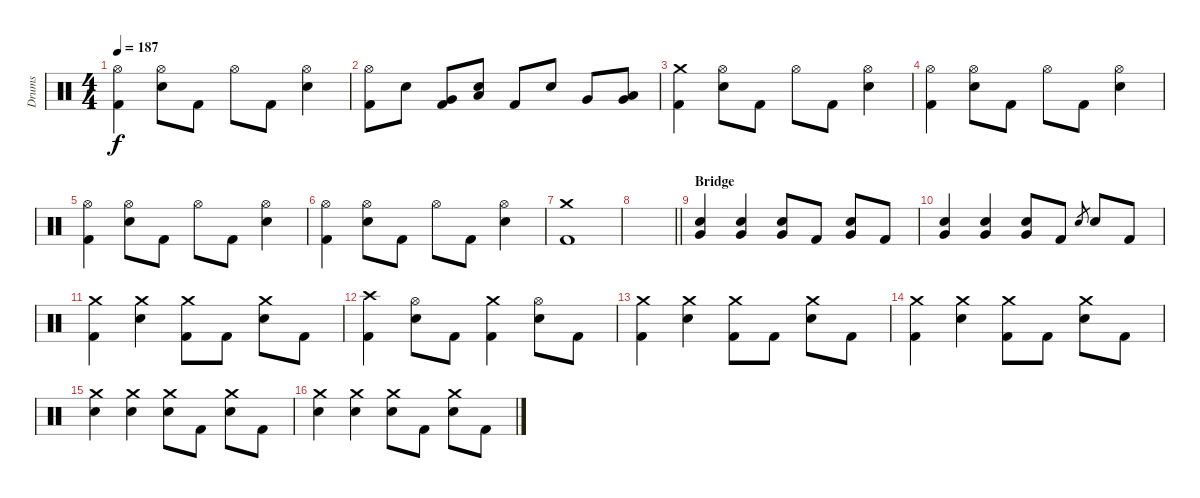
\track ("Drums" "Drums") {instrument percussion}
\staff {score}
\articulation defaults
\ts (4 4)
\tempo 187
\clef neutral
\ks c
("Hi-Hat (open)" "Kick (hit) 2").4{dy f} ("Hi-Hat (open)" "Electric Snare (hit)").8 "Kick (hit) 2".8 "Hi-Hat (open)".8 "Kick (hit) 2".8 ("Hi-Hat (open)" "Electric Snare (hit)").4 |
("Hi-Hat (open)" "Kick (hit) 2").8 "Electric Snare (hit)".8 ("Very Low Tom (hit)" "Kick (hit) 2").8 ("Low Tom (hit)" "Electric Snare (hit)").8 "Kick (hit) 2".8 "Electric Snare (hit)".8 "Very Low Tom (hit)".8 ("Very Low Tom (hit)" "Low Floor Tom (hit)").8 |
("Crash medium (hit)" "Kick (hit) 2").4 ("Hi-Hat (open)" "Electric Snare (hit)").8 "Kick (hit) 2".8 "Hi-Hat (open)".8 "Kick (hit) 2".8 ("Hi-Hat (open)" "Electric Snare (hit)").4 |
("Hi-Hat (open)" "Kick (hit) 2").4 ("Hi-Hat (open)" "Electric Snare (hit)").8 "Kick (hit) 2".8 "Hi-Hat (open)".8 "Kick (hit) 2".8 ("Hi-Hat (open)" "Electric Snare (hit)").4 |
("Hi-Hat (open)" "Kick (hit) 2").4 ("Hi-Hat (open)" "Electric Snare (hit)").8 "Kick (hit) 2".8 "Hi-Hat (open)".8 "Kick (hit) 2".8 ("Hi-Hat (open)" "Electric Snare (hit)").4 |
("Hi-Hat (open)" "Kick (hit) 2").4 ("Hi-Hat (open)" "Electric Snare (hit)").8 "Kick (hit) 2".8 "Hi-Hat (open)".8 "Kick (hit) 2".8 ("Hi-Hat (open)" "Electric Snare (hit)").4 |
("Crash medium (hit)" "Kick (hit) 2").1 |
\barLineRight lightlight
|
\section ("" "Bridge")
("Very Low Tom (hit)" "Electric Snare (hit)").4 ("Very Low Tom (hit)" "Electric Snare (hit)").4 ("Very Low Tom (hit)" "Electric Snare (hit)").8 "Kick (hit) 2".8 ("Very Low Tom (hit)" "Electric Snare (hit)").8 "Kick (hit) 2".8 |
("Very Low Tom (hit)" "Electric Snare (hit)").4 ("Very Low Tom (hit)" "Electric Snare (hit)").4 ("Very Low Tom (hit)" "Electric Snare (hit)").8 "Kick (hit) 2".8 "Electric Snare (hit)".8{gr} "Electric Snare (hit)".8 "Kick (hit) 2".8 |
("Crash medium (hit)" "Kick (hit) 2").4 ("Crash medium (hit)" "Electric Snare (hit)").4 ("Crash medium (hit)" "Kick (hit) 2").8 "Kick (hit) 2".8 ("Crash medium (hit)" "Electric Snare (hit)").8 "Kick (hit) 2".8 |
("Crash high (hit)" "Kick (hit) 2").4 ("Hi-Hat (open)" "Electric Snare (hit)").8 "Kick (hit) 2".8 ("Crash medium (hit)" "Kick (hit) 2").4 ("Hi-Hat (open)" "Electric Snare (hit)").8 "Kick (hit) 2".8 |
("Crash medium (hit)" "Kick (hit) 2").4 ("Crash medium (hit)" "Electric Snare (hit)").4 ("Crash medium (hit)" "Kick (hit) 2").8 "Kick (hit) 2".8 ("Crash medium (hit)" "Electric Snare (hit)").8 "Kick (hit) 2".8 |
("Crash medium (hit)" "Kick (hit) 2").4 ("Crash medium (hit)" "Electric Snare (hit)").4 ("Crash medium (hit)" "Kick (hit) 2").8 "Kick (hit) 2".8 ("Crash medium (hit)" "Electric Snare (hit)").8 "Kick (hit) 2".8 |
("Crash medium (hit)" "Electric Snare (hit)").4 ("Crash medium (hit)" "Electric Snare (hit)").4 ("Crash medium (hit)" "Electric Snare (hit)").8 "Kick (hit) 2".8 ("Crash medium (hit)" "Electric Snare (hit)").8 "Kick (hit) 2".8 |
("Crash medium (hit)" "Electric Snare (hit)").4 ("Crash medium (hit)" "Electric Snare (hit)").4 ("Crash medium (hit)" "Electric Snare (hit)").8 "Kick (hit) 2".8 ("Crash medium (hit)" "Electric Snare (hit)").8 "Kick (hit) 2".8
